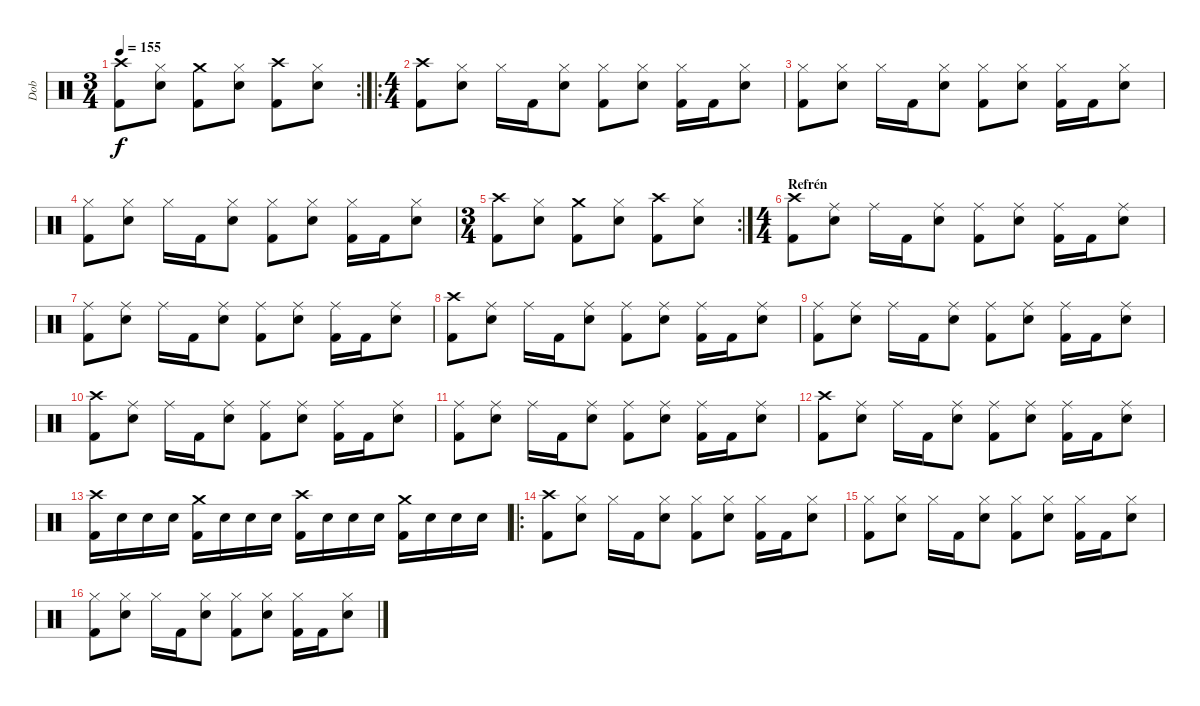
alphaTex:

\track ("Dob" "Dob") {instrument percussion}
\staff {score}
\articulation defaults
\rc 2
\ts (3 4)
\tempo 155
\clef neutral
\ks c
("Crash high (hit)" "Kick (hit) 2").8{dy f} ("Hi-Hat (closed)" "Snare (hit) 2").8 ("Crash medium (hit)" "Kick (hit) 2").8 ("Hi-Hat (closed)" "Snare (hit) 2").8 ("Crash high (hit)" "Kick (hit) 2").8 ("Hi-Hat (closed)" "Snare (hit) 2").8 |
\ro
\ts (4 4)
("Crash high (hit)" "Kick (hit) 2").8 ("Hi-Hat (closed)" "Snare (hit) 2").8 "Hi-Hat (closed)".16 "Kick (hit) 2".16 ("Hi-Hat (closed)" "Snare (hit) 2").8 ("Hi-Hat (closed)" "Kick (hit) 2").8 ("Hi-Hat (closed)" "Snare (hit) 2").8 ("Hi-Hat (closed)" "Kick (hit) 2").16 "Kick (hit) 2".16 ("Hi-Hat (closed)" "Snare (hit) 2").8 |
("Hi-Hat (closed)" "Kick (hit) 2").8 ("Hi-Hat (closed)" "Snare (hit) 2").8 "Hi-Hat (closed)".16 "Kick (hit) 2".16 ("Hi-Hat (closed)" "Snare (hit) 2").8 ("Hi-Hat (closed)" "Kick (hit) 2").8 ("Hi-Hat (closed)" "Snare (hit) 2").8 ("Hi-Hat (closed)" "Kick (hit) 2").16 "Kick (hit) 2".16 ("Hi-Hat (closed)" "Snare (hit) 2").8 |
("Hi-Hat (closed)" "Kick (hit) 2").8 ("Hi-Hat (closed)" "Snare (hit) 2").8 "Hi-Hat (closed)".16 "Kick (hit) 2".16 ("Hi-Hat (closed)" "Snare (hit) 2").8 ("Hi-Hat (closed)" "Kick (hit) 2").8 ("Hi-Hat (closed)" "Snare (hit) 2").8 ("Hi-Hat (closed)" "Kick (hit) 2").16 "Kick (hit) 2".16 ("Hi-Hat (closed)" "Snare (hit) 2").8 |
\rc 2
\ts (3 4)
("Crash high (hit)" "Kick (hit) 2").8 ("Hi-Hat (closed)" "Snare (hit) 2").8 ("Crash medium (hit)" "Kick (hit) 2").8 ("Hi-Hat (closed)" "Snare (hit) 2").8 ("Crash high (hit)" "Kick (hit) 2").8 ("Hi-Hat (closed)" "Snare (hit) 2").8 |
\ts (4 4)
\section ("" "Refrén")
("Crash high (hit)" "Kick (hit) 2").8 ("Ride (middle)" "Snare (hit) 2").8 "Ride (middle)".16 "Kick (hit) 2".16 ("Ride (middle)" "Snare (hit) 2").8 ("Ride (middle)" "Kick (hit) 2").8 ("Ride (middle)" "Snare (hit) 2").8 ("Ride (middle)" "Kick (hit) 2").16 "Kick (hit) 2".16 ("Ride (middle)" "Snare (hit) 2").8 |
("Ride (middle)" "Kick (hit) 2").8 ("Ride (middle)" "Snare (hit) 2").8 "Ride (middle)".16 "Kick (hit) 2".16 ("Ride (middle)" "Snare (hit) 2").8 ("Ride (middle)" "Kick (hit) 2").8 ("Ride (middle)" "Snare (hit) 2").8 ("Ride (middle)" "Kick (hit) 2").16 "Kick (hit) 2".16 ("Ride (middle)" "Snare (hit) 2").8 |
("Crash high (hit)" "Kick (hit) 2").8 ("Ride (middle)" "Snare (hit) 2").8 "Ride (middle)".16 "Kick (hit) 2".16 ("Ride (middle)" "Snare (hit) 2").8 ("Ride (middle)" "Kick (hit) 2").8 ("Ride (middle)" "Snare (hit) 2").8 ("Ride (middle)" "Kick (hit) 2").16 "Kick (hit) 2".16 ("Ride (middle)" "Snare (hit) 2").8 |
("Ride (middle)" "Kick (hit) 2").8 ("Ride (middle)" "Snare (hit) 2").8 "Ride (middle)".16 "Kick (hit) 2".16 ("Ride (middle)" "Snare (hit) 2").8 ("Ride (middle)" "Kick (hit) 2").8 ("Ride (middle)" "Snare (hit) 2").8 ("Ride (middle)" "Kick (hit) 2").16 "Kick (hit) 2".16 ("Ride (middle)" "Snare (hit) 2").8 |
("Crash high (hit)" "Kick (hit) 2").8 ("Ride (middle)" "Snare (hit) 2").8 "Ride (middle)".16 "Kick (hit) 2".16 ("Ride (middle)" "Snare (hit) 2").8 ("Ride (middle)" "Kick (hit) 2").8 ("Ride (middle)" "Snare (hit) 2").8 ("Ride (middle)" "Kick (hit) 2").16 "Kick (hit) 2".16 ("Ride (middle)" "Snare (hit) 2").8 |
("Ride (middle)" "Kick (hit) 2").8 ("Ride (middle)" "Snare (hit) 2").8 "Ride (middle)".16 "Kick (hit) 2".16 ("Ride (middle)" "Snare (hit) 2").8 ("Ride (middle)" "Kick (hit) 2").8 ("Ride (middle)" "Snare (hit) 2").8 ("Ride (middle)" "Kick (hit) 2").16 "Kick (hit) 2".16 ("Ride (middle)" "Snare (hit) 2").8 |
("Crash high (hit)" "Kick (hit) 2").8 ("Ride (middle)" "Snare (hit) 2").8 "Ride (middle)".16 "Kick (hit) 2".16 ("Ride (middle)" "Snare (hit) 2").8 ("Ride (middle)" "Kick (hit) 2").8 ("Ride (middle)" "Snare (hit) 2").8 ("Ride (middle)" "Kick (hit) 2").16 "Kick (hit) 2".16 ("Ride (middle)" "Snare (hit) 2").8 |
("Crash high (hit)" "Kick (hit) 2").16 "Snare (hit) 2".16 "Snare (hit) 2".16 "Snare (hit) 2".16 ("Crash medium (hit)" "Kick (hit) 2").16 "Snare (hit) 2".16 "Snare (hit) 2".16 "Snare (hit) 2".16 ("Crash high (hit)" "Kick (hit) 2").16 "Snare (hit) 2".16 "Snare (hit) 2".16 "Snare (hit) 2".16 ("Crash medium (hit)" "Kick (hit) 2").16 "Snare (hit) 2".16 "Snare (hit) 2".16 "Snare (hit) 2".16 |
\ro
("Crash high (hit)" "Kick (hit) 2").8 ("Hi-Hat (closed)" "Snare (hit) 2").8 "Hi-Hat (closed)".16 "Kick (hit) 2".16 ("Hi-Hat (closed)" "Snare (hit) 2").8 ("Hi-Hat (closed)" "Kick (hit) 2").8 ("Hi-Hat (closed)" "Snare (hit) 2").8 ("Hi-Hat (closed)" "Kick (hit) 2").16 "Kick (hit) 2".16 ("Hi-Hat (closed)" "Snare (hit) 2").8 |
("Hi-Hat (closed)" "Kick (hit) 2").8 ("Hi-Hat (closed)" "Snare (hit) 2").8 "Hi-Hat (closed)".16 "Kick (hit) 2".16 ("Hi-Hat (closed)" "Snare (hit) 2").8 ("Hi-Hat (closed)" "Kick (hit) 2").8 ("Hi-Hat (closed)" "Snare (hit) 2").8 ("Hi-Hat (closed)" "Kick (hit) 2").16 "Kick (hit) 2".16 ("Hi-Hat (closed)" "Snare (hit) 2").8 |
("Hi-Hat (closed)" "Kick (hit) 2").8 ("Hi-Hat (closed)" "Snare (hit) 2").8 "Hi-Hat (closed)".16 "Kick (hit) 2".16 ("Hi-Hat (closed)" "Snare (hit) 2").8 ("Hi-Hat (closed)" "Kick (hit) 2").8 ("Hi-Hat (closed)" "Snare (hit) 2").8 ("Hi-Hat (closed)" "Kick (hit) 2").16 "Kick (hit) 2".16 ("Hi-Hat (closed)" "Snare (hit) 2").8
